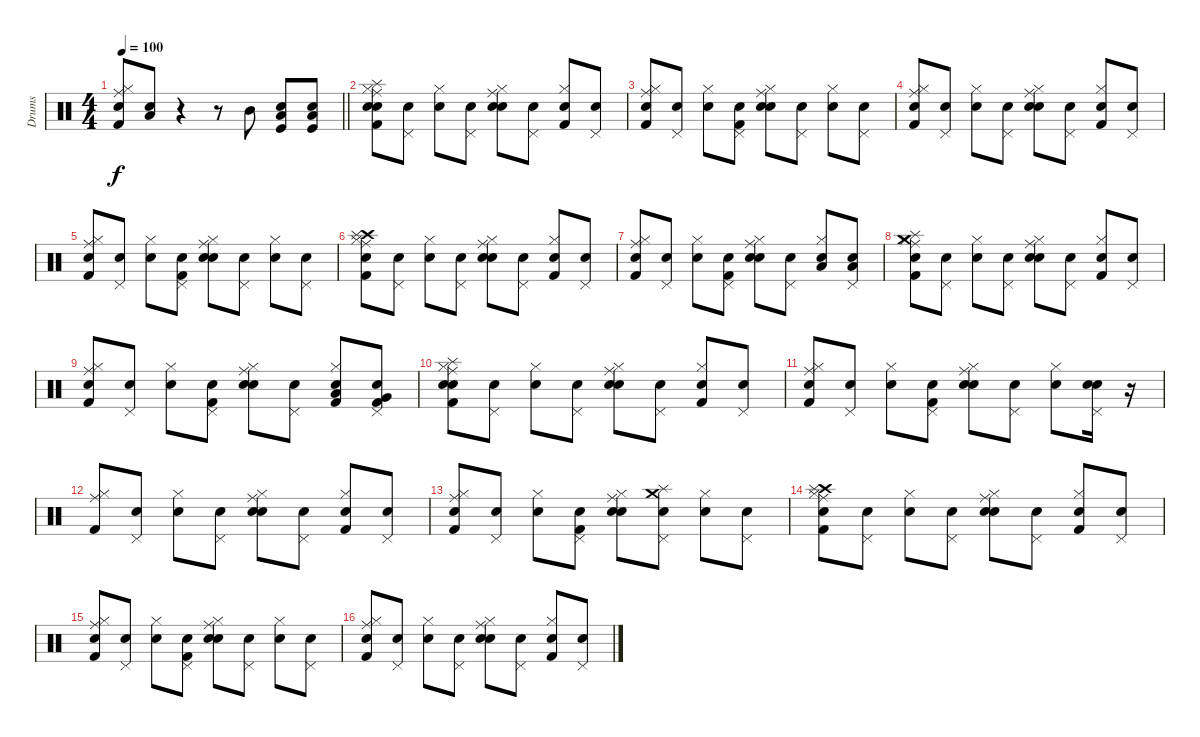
\track ("Drums" "Drums") {instrument percussion}
\staff {score}
\articulation defaults
\ts (4 4)
\tempo 100
\clef neutral
\barLineRight lightlight
\ks c
("Snare (hit)" "Ride (middle)" "Hi-Hat (closed)" "Kick (hit) 2").8{dy f} ("Snare (hit)" "Low Tom (hit)").8 r.4 r.8 "Mid Tom (hit)".8 ("Snare (hit)" "Kick (hit)" "Low Tom (hit)").8 ("Snare (hit)" "Kick (hit)" "Low Tom (hit)").8 |
("Snare (hit)" "Ride (middle)" "Hi-Hat (closed)" "Kick (hit) 2" "Snare (hit) 2" "Splash (hit)").8 ("Snare (hit)" "Pedal Hi-Hat (hit)").8 ("Snare (hit)" "Hi-Hat (closed)").8 ("Snare (hit)" "Pedal Hi-Hat (hit)").8 ("Snare (hit)" "Ride (middle)" "Hi-Hat (closed)" "Snare (hit) 2").8 ("Snare (hit)" "Pedal Hi-Hat (hit)").8 ("Snare (hit)" "Hi-Hat (closed)" "Kick (hit) 2").8 ("Snare (hit)" "Pedal Hi-Hat (hit)").8 |
("Snare (hit)" "Ride (middle)" "Hi-Hat (closed)" "Kick (hit) 2").8 ("Snare (hit)" "Pedal Hi-Hat (hit)").8 ("Snare (hit)" "Hi-Hat (closed)").8 ("Snare (hit)" "Pedal Hi-Hat (hit)" "Kick (hit) 2").8 ("Snare (hit)" "Ride (middle)" "Hi-Hat (closed)" "Snare (hit) 2").8 ("Snare (hit)" "Pedal Hi-Hat (hit)").8 ("Snare (hit)" "Hi-Hat (closed)").8 ("Snare (hit)" "Pedal Hi-Hat (hit)").8 |
("Snare (hit)" "Kick (hit) 2" "Ride (middle)" "Hi-Hat (closed)").8 ("Snare (hit)" "Pedal Hi-Hat (hit)").8 ("Snare (hit)" "Hi-Hat (closed)").8 ("Snare (hit)" "Pedal Hi-Hat (hit)").8 ("Snare (hit)" "Ride (middle)" "Hi-Hat (closed)" "Snare (hit) 2").8 ("Snare (hit)" "Pedal Hi-Hat (hit)").8 ("Snare (hit)" "Hi-Hat (closed)" "Kick (hit) 2").8 ("Snare (hit)" "Pedal Hi-Hat (hit)").8 |
("Snare (hit)" "Ride (middle)" "Hi-Hat (closed)" "Kick (hit) 2").8 ("Snare (hit)" "Pedal Hi-Hat (hit)").8 ("Snare (hit)" "Hi-Hat (closed)").8 ("Snare (hit)" "Pedal Hi-Hat (hit)" "Kick (hit) 2").8 ("Snare (hit)" "Ride (middle)" "Hi-Hat (closed)" "Snare (hit) 2").8 ("Snare (hit)" "Pedal Hi-Hat (hit)").8 ("Snare (hit)" "Hi-Hat (closed)").8 ("Snare (hit)" "Pedal Hi-Hat (hit)").8 |
("Snare (hit)" "Hi-Hat (closed)" "Ride (middle)" "Kick (hit) 2" "Crash high (hit)" "Splash (hit)").8 ("Snare (hit)" "Pedal Hi-Hat (hit)").8 ("Snare (hit)" "Hi-Hat (closed)").8 ("Snare (hit)" "Pedal Hi-Hat (hit)").8 ("Snare (hit)" "Ride (middle)" "Hi-Hat (closed)" "Snare (hit) 2").8 ("Snare (hit)" "Pedal Hi-Hat (hit)").8 ("Snare (hit)" "Hi-Hat (closed)" "Kick (hit) 2").8 ("Snare (hit)" "Pedal Hi-Hat (hit)").8 |
("Snare (hit)" "Ride (middle)" "Hi-Hat (closed)" "Kick (hit) 2").8 ("Snare (hit)" "Pedal Hi-Hat (hit)").8 ("Snare (hit)" "Hi-Hat (closed)").8 ("Snare (hit)" "Pedal Hi-Hat (hit)" "Kick (hit) 2").8 ("Snare (hit)" "Ride (middle)" "Hi-Hat (closed)" "Snare (hit) 2").8 ("Snare (hit)" "Pedal Hi-Hat (hit)").8 ("Snare (hit)" "Low Tom (hit)" "Hi-Hat (closed)").8 ("Snare (hit)" "Low Tom (hit)" "Pedal Hi-Hat (hit)").8 |
("Snare (hit)" "Crash medium (hit)" "Splash (hit)" "Kick (hit) 2" "Ride (middle)" "Hi-Hat (closed)").8 ("Snare (hit)" "Pedal Hi-Hat (hit)").8 ("Snare (hit)" "Hi-Hat (closed)").8 ("Snare (hit)" "Pedal Hi-Hat (hit)").8 ("Snare (hit)" "Ride (middle)" "Hi-Hat (closed)" "Snare (hit) 2").8 ("Snare (hit)" "Pedal Hi-Hat (hit)").8 ("Snare (hit)" "Hi-Hat (closed)" "Kick (hit) 2").8 ("Snare (hit)" "Pedal Hi-Hat (hit)").8 |
("Snare (hit)" "Ride (middle)" "Hi-Hat (closed)" "Kick (hit) 2").8 ("Snare (hit)" "Pedal Hi-Hat (hit)").8 ("Snare (hit)" "Hi-Hat (closed)").8 ("Snare (hit)" "Pedal Hi-Hat (hit)" "Kick (hit) 2").8 ("Snare (hit)" "Ride (middle)" "Hi-Hat (closed)" "Snare (hit) 2").8 ("Snare (hit)" "Pedal Hi-Hat (hit)").8 ("Snare (hit)" "Kick (hit) 2" "Low Tom (hit)" "Hi-Hat (closed)").8 ("Snare (hit)" "Very Low Tom (hit)" "Kick (hit) 2" "Pedal Hi-Hat (hit)").8 |
("Snare (hit)" "Ride (middle)" "Hi-Hat (closed)" "Kick (hit) 2" "Snare (hit) 2" "Splash (hit)").8 ("Snare (hit)" "Pedal Hi-Hat (hit)").8 ("Snare (hit)" "Hi-Hat (closed)").8 ("Snare (hit)" "Pedal Hi-Hat (hit)").8 ("Snare (hit)" "Ride (middle)" "Hi-Hat (closed)" "Snare (hit) 2").8 ("Snare (hit)" "Pedal Hi-Hat (hit)").8 ("Snare (hit)" "Hi-Hat (closed)" "Kick (hit) 2").8 ("Snare (hit)" "Pedal Hi-Hat (hit)").8 |
("Snare (hit)" "Ride (middle)" "Hi-Hat (closed)" "Kick (hit) 2").8 ("Snare (hit)" "Pedal Hi-Hat (hit)").8 ("Snare (hit)" "Hi-Hat (closed)").8 ("Snare (hit)" "Pedal Hi-Hat (hit)" "Kick (hit) 2").8 ("Snare (hit)" "Ride (middle)" "Hi-Hat (closed)" "Snare (hit) 2").8 ("Snare (hit)" "Pedal Hi-Hat (hit)").8 ("Snare (hit)" "Hi-Hat (closed)").8 ("Snare (hit)" "Snare (hit) 2" "Pedal Hi-Hat (hit)").16 r.16 |
("Kick (hit) 2" "Ride (middle)" "Hi-Hat (closed)").8 ("Snare (hit)" "Pedal Hi-Hat (hit)").8 ("Snare (hit)" "Hi-Hat (closed)").8 ("Snare (hit)" "Pedal Hi-Hat (hit)").8 ("Snare (hit)" "Ride (middle)" "Hi-Hat (closed)" "Snare (hit) 2").8 ("Snare (hit)" "Pedal Hi-Hat (hit)").8 ("Snare (hit)" "Hi-Hat (closed)" "Kick (hit) 2").8 ("Snare (hit)" "Pedal Hi-Hat (hit)").8 |
("Snare (hit)" "Ride (middle)" "Hi-Hat (closed)" "Kick (hit) 2").8 ("Snare (hit)" "Pedal Hi-Hat (hit)").8 ("Snare (hit)" "Hi-Hat (closed)").8 ("Snare (hit)" "Pedal Hi-Hat (hit)" "Kick (hit) 2").8 ("Snare (hit)" "Ride (middle)" "Hi-Hat (closed)" "Snare (hit) 2").8 ("Snare (hit)" "Splash (hit)" "Crash medium (hit)" "Pedal Hi-Hat (hit)").8 ("Snare (hit)" "Hi-Hat (closed)").8 ("Snare (hit)" "Pedal Hi-Hat (hit)").8 |
("Snare (hit)" "Hi-Hat (closed)" "Ride (middle)" "Kick (hit) 2" "Crash high (hit)" "Splash (hit)").8 ("Snare (hit)" "Pedal Hi-Hat (hit)").8 ("Snare (hit)" "Hi-Hat (closed)").8 ("Snare (hit)" "Pedal Hi-Hat (hit)").8 ("Snare (hit)" "Ride (middle)" "Hi-Hat (closed)" "Snare (hit) 2").8 ("Snare (hit)" "Pedal Hi-Hat (hit)").8 ("Snare (hit)" "Hi-Hat (closed)" "Kick (hit) 2").8 ("Snare (hit)" "Pedal Hi-Hat (hit)").8 |
("Snare (hit)" "Ride (middle)" "Hi-Hat (closed)" "Kick (hit) 2").8 ("Snare (hit)" "Pedal Hi-Hat (hit)").8 ("Snare (hit)" "Hi-Hat (closed)").8 ("Snare (hit)" "Pedal Hi-Hat (hit)" "Kick (hit) 2").8 ("Snare (hit)" "Ride (middle)" "Hi-Hat (closed)" "Snare (hit) 2").8 ("Snare (hit)" "Pedal Hi-Hat (hit)").8 ("Snare (hit)" "Hi-Hat (closed)").8 ("Snare (hit)" "Pedal Hi-Hat (hit)").8 |
("Snare (hit)" "Kick (hit) 2" "Ride (middle)" "Hi-Hat (closed)").8 ("Snare (hit)" "Pedal Hi-Hat (hit)").8 ("Snare (hit)" "Hi-Hat (closed)").8 ("Snare (hit)" "Pedal Hi-Hat (hit)").8 ("Snare (hit)" "Ride (middle)" "Hi-Hat (closed)" "Snare (hit) 2").8 ("Snare (hit)" "Pedal Hi-Hat (hit)").8 ("Snare (hit)" "Hi-Hat (closed)" "Kick (hit) 2").8 ("Snare (hit)" "Pedal Hi-Hat (hit)").8
